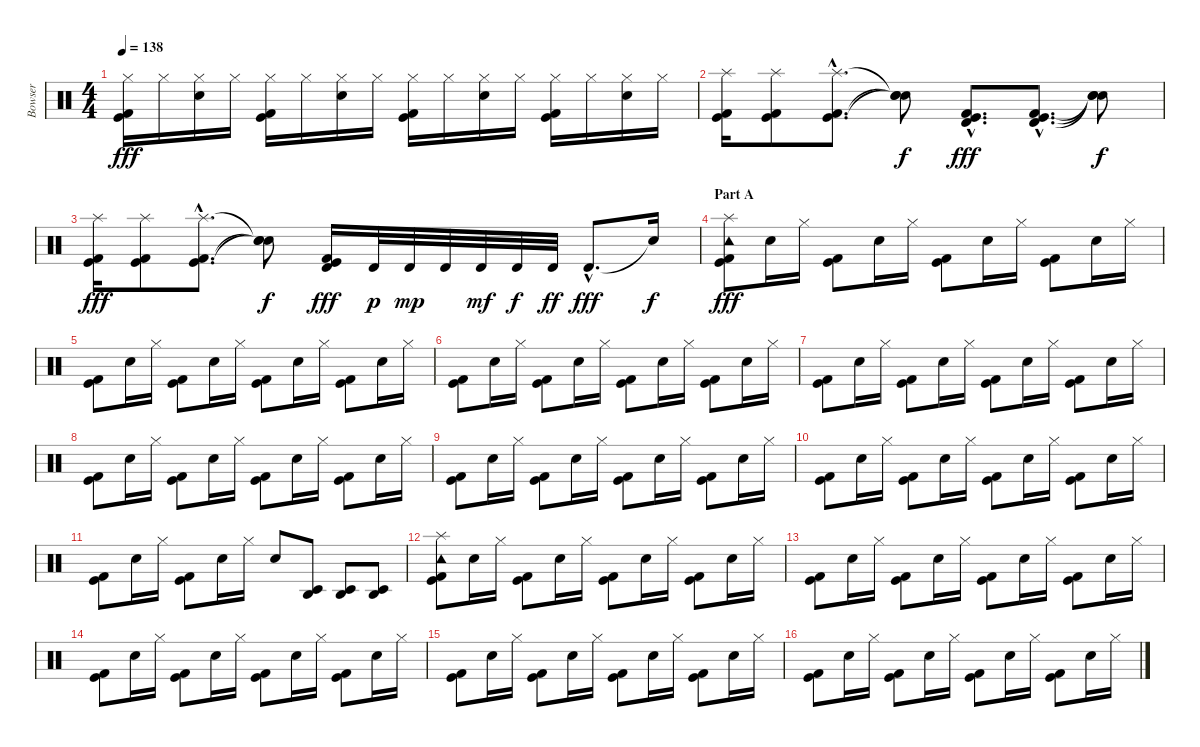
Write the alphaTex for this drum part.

\track ("Bowser" "Bowser") {instrument percussion}
\staff {score}
\articulation defaults
\ts (4 4)
\tempo 138
\clef neutral
\ks c
("Kick (hit)" "Kick (hit) 2" "Hi-Hat (closed)").16{dy fff} "Hi-Hat (closed)".16 ("Electric Snare (hit)" "Hi-Hat (closed)").16 "Hi-Hat (closed)".16 ("Kick (hit)" "Kick (hit) 2" "Hi-Hat (closed)").16 "Hi-Hat (closed)".16 ("Electric Snare (hit)" "Hi-Hat (closed)").16 "Hi-Hat (closed)".16 ("Kick (hit)" "Kick (hit) 2" "Hi-Hat (closed)").16 "Hi-Hat (closed)".16 ("Electric Snare (hit)" "Hi-Hat (closed)").16 "Hi-Hat (closed)".16 ("Kick (hit)" "Kick (hit) 2" "Hi-Hat (closed)").16 "Hi-Hat (closed)".16 ("Electric Snare (hit)" "Hi-Hat (closed)").16 "Hi-Hat (closed)".16 |
("Kick (hit)" "Kick (hit) 2" "Splash (hit)").16 ("Kick (hit)" "Kick (hit) 2" "Splash (hit)").8 ("Kick (hit)"{hac} "Kick (hit) 2"{hac} "Splash (hit)"{hac}).8{d} ("Snare (hit)"{t} "Snare (hit)"{t} "Snare (hit)"{t}).8{dy f} ("Kick (hit)"{hac} "Kick (hit) 2"{hac} "Timbale high (hit)"{hac}).8{d dy fff} ("Kick (hit)"{hac} "Kick (hit) 2"{hac} "Timbale high (hit)"{hac}).8{d} ("Snare (hit)"{t} "Snare (hit)"{t} "Snare (hit)"{t}).8{dy f} |
("Kick (hit)" "Kick (hit) 2" "Splash (hit)").16{dy fff} ("Kick (hit)" "Kick (hit) 2" "Splash (hit)").8 ("Kick (hit)"{hac} "Kick (hit) 2"{hac} "Splash (hit)"{hac}).8{d} ("Snare (hit)"{t} "Snare (hit)"{t} "Snare (hit)"{t}).8{dy f} ("Kick (hit)" "Kick (hit) 2" "Timbale high (hit)").16{dy fff} "Timbale high (hit)".32{dy p} "Timbale high (hit)".32{dy mp} "Timbale high (hit)".32 "Timbale high (hit)".32{dy mf} "Timbale high (hit)".32{dy f} "Timbale high (hit)".32{dy ff} "Timbale high (hit)"{hac}.8{d dy fff} "Snare (hit)"{t}.16{dy f} |
\section ("" "Part A")
("Kick (hit)" "Kick (hit) 2" "Tambourine (hit)" "Splash (hit)").8{dy fff} "Electric Snare (hit)".16 "Hi-Hat (closed)".16 ("Kick (hit)" "Kick (hit) 2").8 "Electric Snare (hit)".16 "Hi-Hat (closed)".16 ("Kick (hit)" "Kick (hit) 2").8 "Electric Snare (hit)".16 "Hi-Hat (closed)".16 ("Kick (hit)" "Kick (hit) 2").8 "Electric Snare (hit)".16 "Hi-Hat (closed)".16 |
("Kick (hit)" "Kick (hit) 2").8 "Electric Snare (hit)".16 "Hi-Hat (closed)".16 ("Kick (hit)" "Kick (hit) 2").8 "Electric Snare (hit)".16 "Hi-Hat (closed)".16 ("Kick (hit)" "Kick (hit) 2").8 "Electric Snare (hit)".16 "Hi-Hat (closed)".16 ("Kick (hit)" "Kick (hit) 2").8 "Electric Snare (hit)".16 "Hi-Hat (closed)".16 |
("Kick (hit)" "Kick (hit) 2").8 "Electric Snare (hit)".16 "Hi-Hat (closed)".16 ("Kick (hit)" "Kick (hit) 2").8 "Electric Snare (hit)".16 "Hi-Hat (closed)".16 ("Kick (hit)" "Kick (hit) 2").8 "Electric Snare (hit)".16 "Hi-Hat (closed)".16 ("Kick (hit)" "Kick (hit) 2").8 "Electric Snare (hit)".16 "Hi-Hat (closed)".16 |
("Kick (hit)" "Kick (hit) 2").8 "Electric Snare (hit)".16 "Hi-Hat (closed)".16 ("Kick (hit)" "Kick (hit) 2").8 "Electric Snare (hit)".16 "Hi-Hat (closed)".16 ("Kick (hit)" "Kick (hit) 2").8 "Electric Snare (hit)".16 "Hi-Hat (closed)".16 ("Kick (hit)" "Kick (hit) 2").8 "Electric Snare (hit)".16 "Hi-Hat (closed)".16 |
("Kick (hit)" "Kick (hit) 2").8 "Electric Snare (hit)".16 "Hi-Hat (closed)".16 ("Kick (hit)" "Kick (hit) 2").8 "Electric Snare (hit)".16 "Hi-Hat (closed)".16 ("Kick (hit)" "Kick (hit) 2").8 "Electric Snare (hit)".16 "Hi-Hat (closed)".16 ("Kick (hit)" "Kick (hit) 2").8 "Electric Snare (hit)".16 "Hi-Hat (closed)".16 |
("Kick (hit)" "Kick (hit) 2").8 "Electric Snare (hit)".16 "Hi-Hat (closed)".16 ("Kick (hit)" "Kick (hit) 2").8 "Electric Snare (hit)".16 "Hi-Hat (closed)".16 ("Kick (hit)" "Kick (hit) 2").8 "Electric Snare (hit)".16 "Hi-Hat (closed)".16 ("Kick (hit)" "Kick (hit) 2").8 "Electric Snare (hit)".16 "Hi-Hat (closed)".16 |
("Kick (hit)" "Kick (hit) 2").8 "Electric Snare (hit)".16 "Hi-Hat (closed)".16 ("Kick (hit)" "Kick (hit) 2").8 "Electric Snare (hit)".16 "Hi-Hat (closed)".16 ("Kick (hit)" "Kick (hit) 2").8 "Electric Snare (hit)".16 "Hi-Hat (closed)".16 ("Kick (hit)" "Kick (hit) 2").8 "Electric Snare (hit)".16 "Hi-Hat (closed)".16 |
("Kick (hit)" "Kick (hit) 2").8 "Electric Snare (hit)".16 "Hi-Hat (closed)".16 ("Kick (hit)" "Kick (hit) 2").8 "Electric Snare (hit)".16 "Hi-Hat (closed)".16 "Electric Snare (hit)".8 ("Timbale low (hit)" "Agogo high (hit)").8 ("Timbale low (hit)" "Agogo high (hit)").8 ("Timbale low (hit)" "Agogo high (hit)").8 |
("Kick (hit)" "Kick (hit) 2" "Tambourine (hit)" "Splash (hit)").8 "Electric Snare (hit)".16 "Hi-Hat (closed)".16 ("Kick (hit)" "Kick (hit) 2").8 "Electric Snare (hit)".16 "Hi-Hat (closed)".16 ("Kick (hit)" "Kick (hit) 2").8 "Electric Snare (hit)".16 "Hi-Hat (closed)".16 ("Kick (hit)" "Kick (hit) 2").8 "Electric Snare (hit)".16 "Hi-Hat (closed)".16 |
("Kick (hit)" "Kick (hit) 2").8 "Electric Snare (hit)".16 "Hi-Hat (closed)".16 ("Kick (hit)" "Kick (hit) 2").8 "Electric Snare (hit)".16 "Hi-Hat (closed)".16 ("Kick (hit)" "Kick (hit) 2").8 "Electric Snare (hit)".16 "Hi-Hat (closed)".16 ("Kick (hit)" "Kick (hit) 2").8 "Electric Snare (hit)".16 "Hi-Hat (closed)".16 |
("Kick (hit)" "Kick (hit) 2").8 "Electric Snare (hit)".16 "Hi-Hat (closed)".16 ("Kick (hit)" "Kick (hit) 2").8 "Electric Snare (hit)".16 "Hi-Hat (closed)".16 ("Kick (hit)" "Kick (hit) 2").8 "Electric Snare (hit)".16 "Hi-Hat (closed)".16 ("Kick (hit)" "Kick (hit) 2").8 "Electric Snare (hit)".16 "Hi-Hat (closed)".16 |
("Kick (hit)" "Kick (hit) 2").8 "Electric Snare (hit)".16 "Hi-Hat (closed)".16 ("Kick (hit)" "Kick (hit) 2").8 "Electric Snare (hit)".16 "Hi-Hat (closed)".16 ("Kick (hit)" "Kick (hit) 2").8 "Electric Snare (hit)".16 "Hi-Hat (closed)".16 ("Kick (hit)" "Kick (hit) 2").8 "Electric Snare (hit)".16 "Hi-Hat (closed)".16 |
("Kick (hit)" "Kick (hit) 2").8 "Electric Snare (hit)".16 "Hi-Hat (closed)".16 ("Kick (hit)" "Kick (hit) 2").8 "Electric Snare (hit)".16 "Hi-Hat (closed)".16 ("Kick (hit)" "Kick (hit) 2").8 "Electric Snare (hit)".16 "Hi-Hat (closed)".16 ("Kick (hit)" "Kick (hit) 2").8 "Electric Snare (hit)".16 "Hi-Hat (closed)".16
